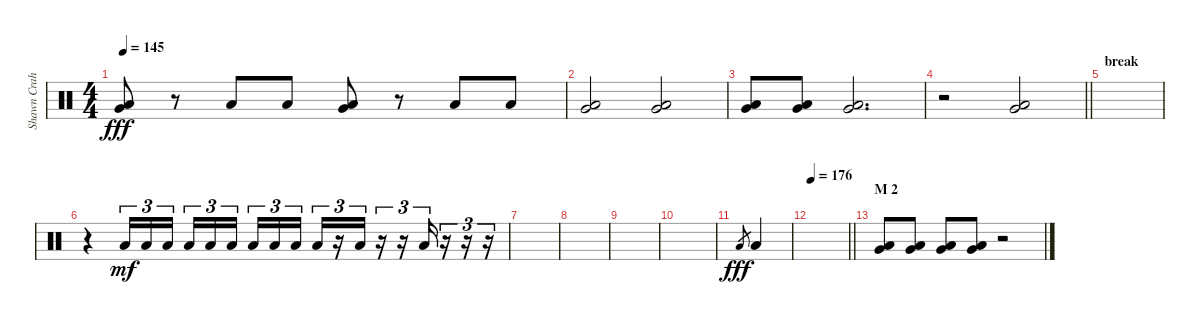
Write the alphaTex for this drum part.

\track ("Shawn Crahan" "Shawn Crah") {instrument percussion}
\staff {score}
\articulation defaults
\ts (4 4)
\tempo 145
\clef neutral
\ks c
("Very Low Tom (hit)" "Low Floor Tom (hit)").8{dy fff} r.8 "Low Floor Tom (hit)".8 "Low Floor Tom (hit)".8 ("Very Low Tom (hit)" "Low Floor Tom (hit)").8 r.8 "Low Floor Tom (hit)".8 "Low Floor Tom (hit)".8 |
("Very Low Tom (hit)" "Low Floor Tom (hit)").2 ("Very Low Tom (hit)" "Low Floor Tom (hit)").2 |
("Very Low Tom (hit)" "Low Floor Tom (hit)").8 ("Very Low Tom (hit)" "Low Floor Tom (hit)").8 ("Very Low Tom (hit)" "Low Floor Tom (hit)").2{d} |
\barLineRight lightlight
r.2 ("Very Low Tom (hit)" "Low Floor Tom (hit)").2 |
\section ("" "break")
|
r.4 "Low Floor Tom (hit)".16{tu (3 2) dy mf} "Low Floor Tom (hit)".16{tu (3 2)} "Low Floor Tom (hit)".16{tu (3 2) beam splitsecondary} "Low Floor Tom (hit)".16{tu (3 2)} "Low Floor Tom (hit)".16{tu (3 2)} "Low Floor Tom (hit)".16{tu (3 2)} "Low Floor Tom (hit)".16{tu (3 2)} "Low Floor Tom (hit)".16{tu (3 2)} "Low Floor Tom (hit)".16{tu (3 2) beam splitsecondary} "Low Floor Tom (hit)".16{tu (3 2)} r.16{tu (3 2)} "Low Floor Tom (hit)".16{tu (3 2)} r.16{tu (3 2)} r.16{tu (3 2)} "Low Floor Tom (hit)".16{tu (3 2)} r.16{tu (3 2)} r.16{tu (3 2)} r.16{tu (3 2)} |
|
|
|
|
"Low Floor Tom (hit)".8{gr dy fff} "Low Floor Tom (hit)".4 |
\tempo 176
\barLineRight lightlight
|
\section ("" "M 2")
("Very Low Tom (hit)" "Low Floor Tom (hit)").8 ("Very Low Tom (hit)" "Low Floor Tom (hit)").8 ("Very Low Tom (hit)" "Low Floor Tom (hit)").8 ("Very Low Tom (hit)" "Low Floor Tom (hit)").8 r.2
